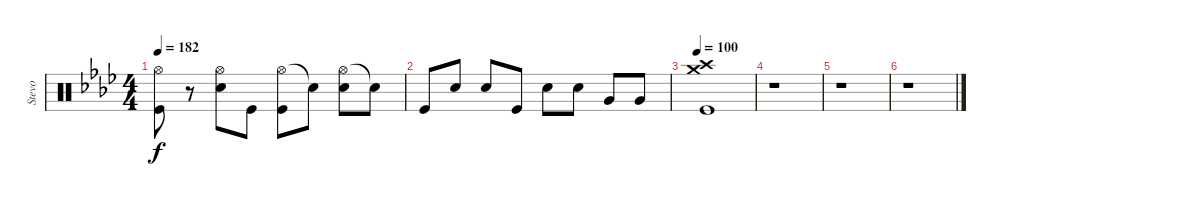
\track ("Stevo" "Stevo") {instrument percussion}
\staff {score}
\articulation defaults
\ts (4 4)
\tempo 182
\clef neutral
\ks ab
("Hi-Hat (open)" "Kick (hit)").8{dy f} r.8 ("Hi-Hat (open)" "Snare (hit) 2").8 "Kick (hit)".8 ("Hi-Hat (open)" "Kick (hit)").8 "Snare (hit)"{t}.8 ("Hi-Hat (open)" "Snare (hit) 2").8 "Snare (hit)"{t}.8 |
"Kick (hit)".8 "Snare (hit) 2".8 "Snare (hit) 2".8 "Kick (hit)".8 "Snare (hit) 2".8 "Snare (hit) 2".8 "Very Low Tom (hit)".8 "Very Low Tom (hit)".8 |
\tempo 100
("Crash high (hit)" "Crash medium (hit)" "Kick (hit)").1 |
r.1 |
r.1 |
r.1
